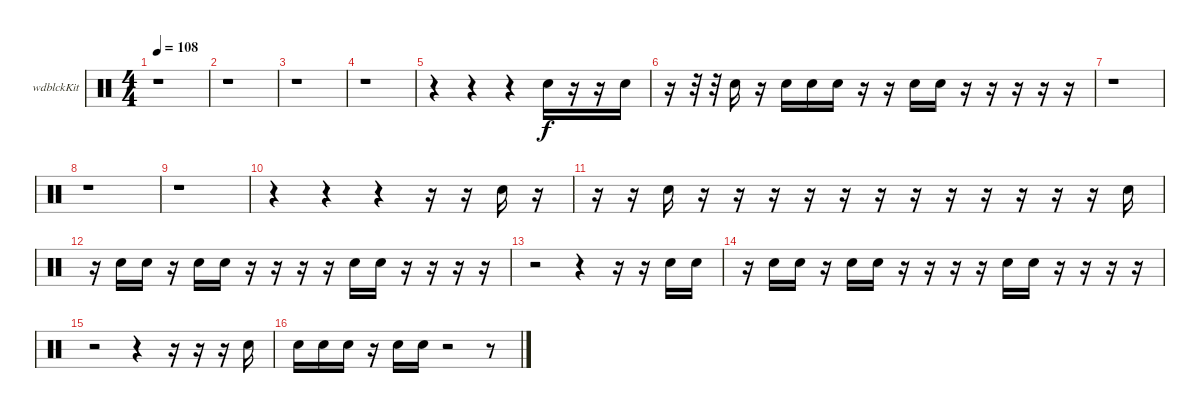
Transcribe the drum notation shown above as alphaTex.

\bracketExtendMode groupsimilarinstruments
\firstSystemTrackNameOrientation horizontal
\otherSystemsTrackNameOrientation horizontal
\track ("Woodblock" "wdblckKit") {instrument percussion}
\staff {score}
\articulation defaults
\ts (4 4)
\tempo 108
\clef neutral
\ks c
r.1{dy f} |
r.1 |
r.1 |
r.1 |
r.4 r.4 r.4 "Snare (hit) 2".16 r.16 r.16 "Snare (hit) 2".16 |
r.16 r.32 r.32 "Snare (hit) 2".16 r.16 "Snare (hit) 2".16 "Snare (hit) 2".16 "Snare (hit) 2".16 r.16 r.16 "Snare (hit) 2".16 "Snare (hit) 2".16 r.16 r.16 r.16 r.16 r.16 |
r.1 |
r.1 |
r.1 |
r.4 r.4 r.4 r.16 r.16 "Snare (hit) 2".16 r.16 |
r.16 r.16 "Snare (hit) 2".16 r.16 r.16 r.16 r.16 r.16 r.16 r.16 r.16 r.16 r.16 r.16 r.16 "Snare (hit) 2".16 |
r.16 "Snare (hit) 2".16 "Snare (hit) 2".16 r.16 "Snare (hit) 2".16 "Snare (hit) 2".16 r.16 r.16 r.16 r.16 "Snare (hit) 2".16 "Snare (hit) 2".16 r.16 r.16 r.16 r.16 |
r.2 r.4 r.16 r.16 "Snare (hit) 2".16 "Snare (hit) 2".16 |
r.16 "Snare (hit) 2".16 "Snare (hit) 2".16 r.16 "Snare (hit) 2".16 "Snare (hit) 2".16 r.16 r.16 r.16 r.16 "Snare (hit) 2".16 "Snare (hit) 2".16 r.16 r.16 r.16 r.16 |
r.2 r.4 r.16 r.16 r.16 "Snare (hit) 2".16 |
"Snare (hit) 2".16 "Snare (hit) 2".16 "Snare (hit) 2".16 r.16 "Snare (hit) 2".16 "Snare (hit) 2".16 r.2 r.8
